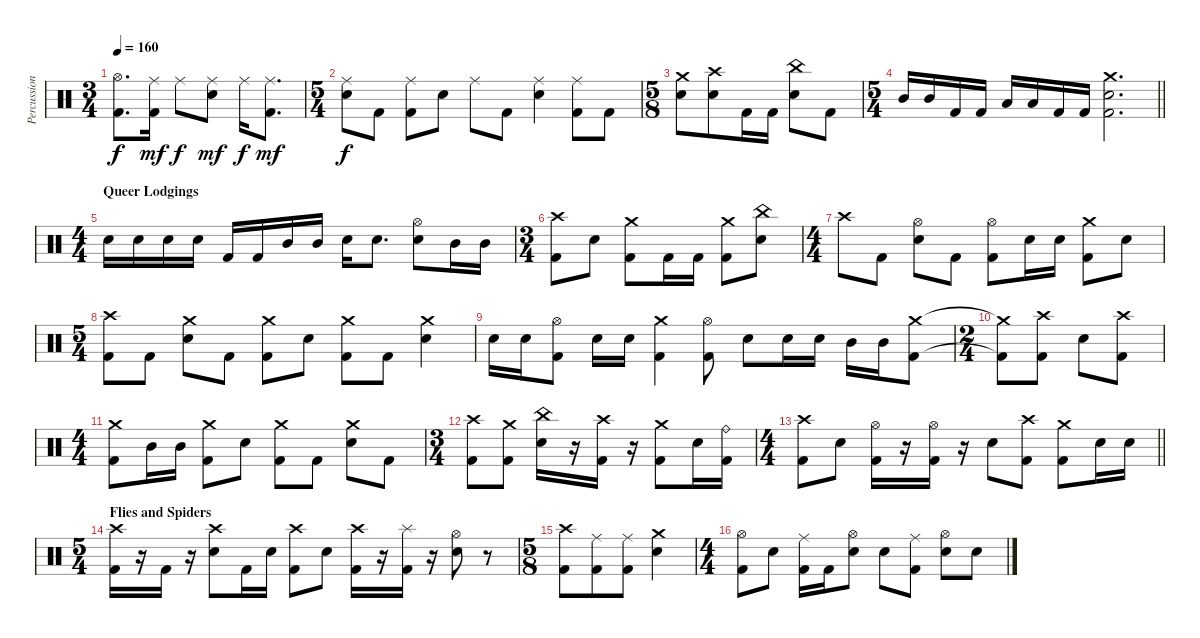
\track ("Percussion" "Percussion") {instrument percussion}
\staff {score}
\articulation defaults
\ts (3 4)
\tempo 160
\clef neutral
\ks c
("Kick (hit) 2" "Hi-Hat (open)").8{d dy f} ("Kick (hit) 2" "Ride (middle)").16{dy mf} "Ride (middle)".8{dy f} ("Electric Snare (hit)" "Ride (middle)").8{dy mf} "Ride (middle)".16{dy f} ("Kick (hit) 2" "Ride (middle)").8{d dy mf} |
\ts (5 4)
("Electric Snare (hit)" "Ride (middle)").8{dy f} "Kick (hit) 2".8 ("Kick (hit) 2" "Ride (middle)").8 "Electric Snare (hit)".8 "Ride (middle)".8 "Kick (hit) 2".8 ("Electric Snare (hit)" "Ride (middle)").4 ("Kick (hit) 2" "Ride (middle)").8 "Kick (hit) 2".8 |
\ts (5 8)
("Crash medium (hit)" "Electric Snare (hit)").8 ("Crash high (hit)" "Electric Snare (hit)").8 "Kick (hit) 2".16 "Kick (hit) 2".16 ("China (hit)" "Electric Snare (hit)").8 "Kick (hit) 2".8 |
\ts (5 4)
\barLineRight lightlight "Mid Tom (hit)".16 "Mid Tom (hit)".16 "Kick (hit) 2".16 "Kick (hit) 2".16 "Low Tom (hit)".16 "Low Tom (hit)".16 "Kick (hit) 2".16 "Kick (hit) 2".16
("Crash medium (hit)" "Electric Snare (hit)" "Kick (hit) 2").2{d} |
\ts (4 4)
\section ("" "Queer Lodgings")
"Electric Snare (hit)".16 "Electric Snare (hit)".16 "Electric Snare (hit)".16 "Electric Snare (hit)".16 "Kick (hit) 2".16 "Kick (hit) 2".16 "Mid Tom (hit)".16 "Mid Tom (hit)".16 "Electric Snare (hit)".16 "Electric Snare (hit)".8{d} ("Electric Snare (hit)" "Hi-Hat (open)").8 "Mid Tom (hit)".16 "Mid Tom (hit)".16 |
\ts (3 4)
("Crash high (hit)" "Kick (hit) 2").8 "Electric Snare (hit)".8 ("Crash medium (hit)" "Kick (hit) 2").8 "Kick (hit) 2".16 "Kick (hit) 2".16 ("Crash medium (hit)" "Kick (hit) 2").8 ("China (hit)" "Electric Snare (hit)").8 |
\ts (4 4)
"Crash high (hit)".8 "Kick (hit) 2".8 ("Hi-Hat (open)" "Electric Snare (hit)").8 "Kick (hit) 2".8 ("Hi-Hat (open)" "Kick (hit) 2").8 "Electric Snare (hit)".16 "Electric Snare (hit)".16 ("Crash medium (hit)" "Kick (hit) 2").8 "Electric Snare (hit)".8 |
\ts (5 4)
("Crash high (hit)" "Kick (hit) 2").8 "Kick (hit) 2".8 ("Crash medium (hit)" "Electric Snare (hit)").8 "Kick (hit) 2".8 ("Crash medium (hit)" "Kick (hit) 2").8 "Electric Snare (hit)".8 ("Crash medium (hit)" "Kick (hit) 2").8 "Kick (hit) 2".8 ("Crash medium (hit)" "Electric Snare (hit)").4 |
"Electric Snare (hit)".16 "Electric Snare (hit)".16 ("Kick (hit) 2" "Hi-Hat (open)").8 "Electric Snare (hit)".16 "Electric Snare (hit)".16 ("Kick (hit) 2" "Crash medium (hit)").4 ("Kick (hit) 2" "Hi-Hat (open)").8 "Electric Snare (hit)".8 "Electric Snare (hit)".16 "Electric Snare (hit)".16 "Mid Tom (hit)".16 "Mid Tom (hit)".16 ("Crash medium (hit)" "Kick (hit) 2").8 |
\ts (2 4)
("Crash medium (hit)"{t} "Kick (hit) 2"{t}).8 ("Kick (hit) 2" "Crash high (hit)").8 "Electric Snare (hit)".8 ("Crash high (hit)" "Kick (hit) 2").8 |
\ts (4 4)
("Crash medium (hit)" "Kick (hit) 2").8 "Mid Tom (hit)".16 "Mid Tom (hit)".16 ("Crash medium (hit)" "Kick (hit) 2").8 "Electric Snare (hit)".8 ("Crash medium (hit)" "Kick (hit) 2").8 "Kick (hit) 2".8 ("Crash medium (hit)" "Electric Snare (hit)").8 "Kick (hit) 2".8 |
\ts (3 4)
("Crash high (hit)" "Kick (hit) 2").8 ("Crash medium (hit)" "Kick (hit) 2").8 ("China (hit)" "Electric Snare (hit)").16 r.16 ("Crash high (hit)" "Kick (hit) 2").16 r.16 ("Crash medium (hit)" "Kick (hit) 2").8 "Electric Snare (hit)".16 ("Ride (bell)" "Kick (hit) 2").16 |
\ts (4 4)
\barLineRight lightlight
("Crash high (hit)" "Kick (hit) 2").8 "Electric Snare (hit)".8 ("Hi-Hat (open)" "Kick (hit) 2").16 r.16 ("Hi-Hat (open)" "Kick (hit) 2").16 r.16 "Electric Snare (hit)".8 ("Crash high (hit)" "Kick (hit) 2").8 ("Crash medium (hit)" "Kick (hit) 2").8 "Electric Snare (hit)".16 "Electric Snare (hit)".16 |
\ts (5 4)
\section ("" "Flies and Spiders")
("Crash high (hit)" "Kick (hit) 2").16 r.16 "Kick (hit) 2".16 r.16 ("Crash high (hit)" "Electric Snare (hit)").8 "Kick (hit) 2".16 "Electric Snare (hit)".16 ("Crash high (hit)" "Kick (hit) 2").8 "Electric Snare (hit)".8 ("Crash high (hit)" "Kick (hit) 2").16 r.16 ("Splash (hit)" "Kick (hit) 2").16 r.16 ("Hi-Hat (open)" "Electric Snare (hit)").8 r.8 |
\ts (5 8)
("Crash high (hit)" "Kick (hit) 2").8 ("Ride (middle)" "Kick (hit) 2").8 ("Ride (middle)" "Kick (hit) 2").8 ("Crash medium (hit)" "Electric Snare (hit)").4 |
\ts (4 4)
("Hi-Hat (open)" "Kick (hit) 2").8 "Electric Snare (hit)".8 ("Ride (middle)" "Kick (hit) 2").16 "Kick (hit) 2".16 ("Hi-Hat (open)" "Electric Snare (hit)").8 "Electric Snare (hit)".8 ("Ride (middle)" "Kick (hit) 2").8 ("Hi-Hat (open)" "Electric Snare (hit)").8 "Electric Snare (hit)".8
